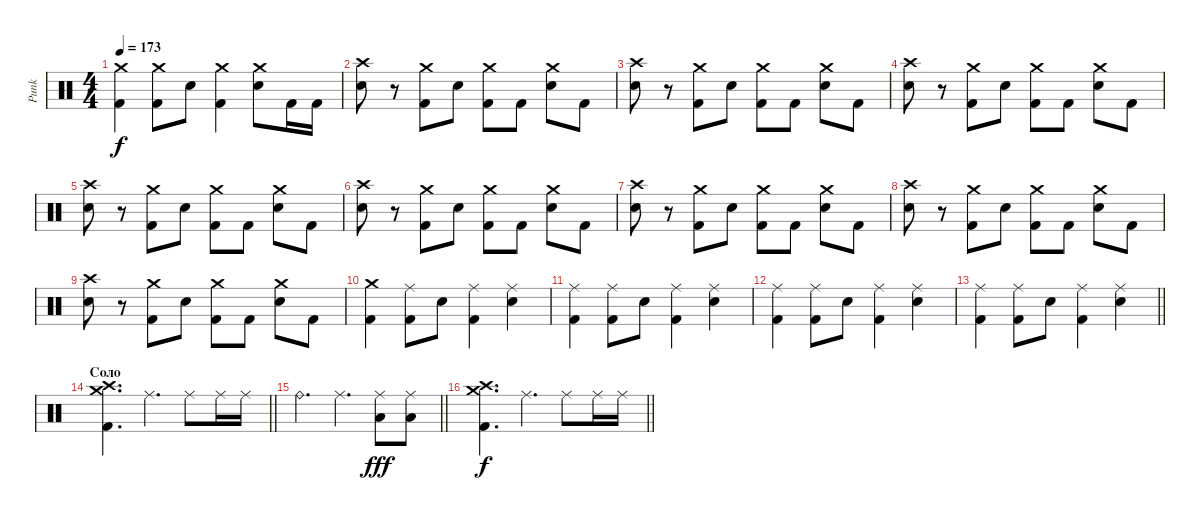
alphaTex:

\track ("Punk" "Punk") {instrument percussion}
\staff {score}
\articulation defaults
\ts (4 4)
\tempo 173
\clef neutral
\ks c
("Crash medium (hit)" "Kick (hit) 2").4{dy f} ("Crash medium (hit)" "Kick (hit) 2").8 "Electric Snare (hit)".8 ("Crash medium (hit)" "Kick (hit) 2").4 ("Crash medium (hit)" "Electric Snare (hit)").8 "Kick (hit) 2".16 "Kick (hit) 2".16 |
("Crash high (hit)" "Electric Snare (hit)").8 r.8 ("Crash medium (hit)" "Kick (hit) 2").8 "Electric Snare (hit)".8 ("Crash medium (hit)" "Kick (hit) 2").8 "Kick (hit) 2".8 ("Crash medium (hit)" "Electric Snare (hit)").8 "Kick (hit) 2".8 |
("Crash high (hit)" "Electric Snare (hit)").8 r.8 ("Crash medium (hit)" "Kick (hit) 2").8 "Electric Snare (hit)".8 ("Crash medium (hit)" "Kick (hit) 2").8 "Kick (hit) 2".8 ("Crash medium (hit)" "Electric Snare (hit)").8 "Kick (hit) 2".8 |
("Crash high (hit)" "Electric Snare (hit)").8 r.8 ("Crash medium (hit)" "Kick (hit) 2").8 "Electric Snare (hit)".8 ("Crash medium (hit)" "Kick (hit) 2").8 "Kick (hit) 2".8 ("Crash medium (hit)" "Electric Snare (hit)").8 "Kick (hit) 2".8 |
("Crash high (hit)" "Electric Snare (hit)").8 r.8 ("Crash medium (hit)" "Kick (hit) 2").8 "Electric Snare (hit)".8 ("Crash medium (hit)" "Kick (hit) 2").8 "Kick (hit) 2".8 ("Crash medium (hit)" "Electric Snare (hit)").8 "Kick (hit) 2".8 |
("Crash high (hit)" "Electric Snare (hit)").8 r.8 ("Crash medium (hit)" "Kick (hit) 2").8 "Electric Snare (hit)".8 ("Crash medium (hit)" "Kick (hit) 2").8 "Kick (hit) 2".8 ("Crash medium (hit)" "Electric Snare (hit)").8 "Kick (hit) 2".8 |
("Crash high (hit)" "Electric Snare (hit)").8 r.8 ("Crash medium (hit)" "Kick (hit) 2").8 "Electric Snare (hit)".8 ("Crash medium (hit)" "Kick (hit) 2").8 "Kick (hit) 2".8 ("Crash medium (hit)" "Electric Snare (hit)").8 "Kick (hit) 2".8 |
("Crash high (hit)" "Electric Snare (hit)").8 r.8 ("Crash medium (hit)" "Kick (hit) 2").8 "Electric Snare (hit)".8 ("Crash medium (hit)" "Kick (hit) 2").8 "Kick (hit) 2".8 ("Crash medium (hit)" "Electric Snare (hit)").8 "Kick (hit) 2".8 |
("Crash high (hit)" "Electric Snare (hit)").8 r.8 ("Crash medium (hit)" "Kick (hit) 2").8 "Electric Snare (hit)".8 ("Crash medium (hit)" "Kick (hit) 2").8 "Kick (hit) 2".8 ("Crash medium (hit)" "Electric Snare (hit)").8 "Kick (hit) 2".8 |
("Crash medium (hit)" "Kick (hit) 2").4 ("Ride (middle)" "Kick (hit) 2").8 "Electric Snare (hit)".8 ("Ride (middle)" "Kick (hit) 2").4 ("Ride (middle)" "Electric Snare (hit)").4 |
("Ride (middle)" "Kick (hit) 2").4 ("Ride (middle)" "Kick (hit) 2").8 "Electric Snare (hit)".8 ("Ride (middle)" "Kick (hit) 2").4 ("Ride (middle)" "Electric Snare (hit)").4 |
("Ride (middle)" "Kick (hit) 2").4 ("Ride (middle)" "Kick (hit) 2").8 "Electric Snare (hit)".8 ("Ride (middle)" "Kick (hit) 2").4 ("Ride (middle)" "Electric Snare (hit)").4 |
\barLineRight lightlight
("Ride (middle)" "Kick (hit) 2").4 ("Ride (middle)" "Kick (hit) 2").8 "Electric Snare (hit)".8 ("Ride (middle)" "Kick (hit) 2").4 ("Ride (middle)" "Electric Snare (hit)").4 |
\section ("" "Соло")
\barLineRight lightlight
("Crash medium (hit)" "Crash high (hit)" "Kick (hit) 2").4{d} "Ride (middle)".4{d} "Ride (middle)".8 "Ride (middle)".16 "Ride (middle)".16 |
\barLineRight lightlight "Ride (bell)".4{d} "Ride (middle)".4{d}
("Ride (middle)" "Low Floor Tom (hit)").8{dy fff} ("Ride (middle)" "Low Floor Tom (hit)").8 |
\barLineRight lightlight
("Crash medium (hit)" "Crash high (hit)" "Kick (hit) 2").4{d dy f} "Ride (middle)".4{d} "Ride (middle)".8 "Ride (middle)".16 "Ride (middle)".16
